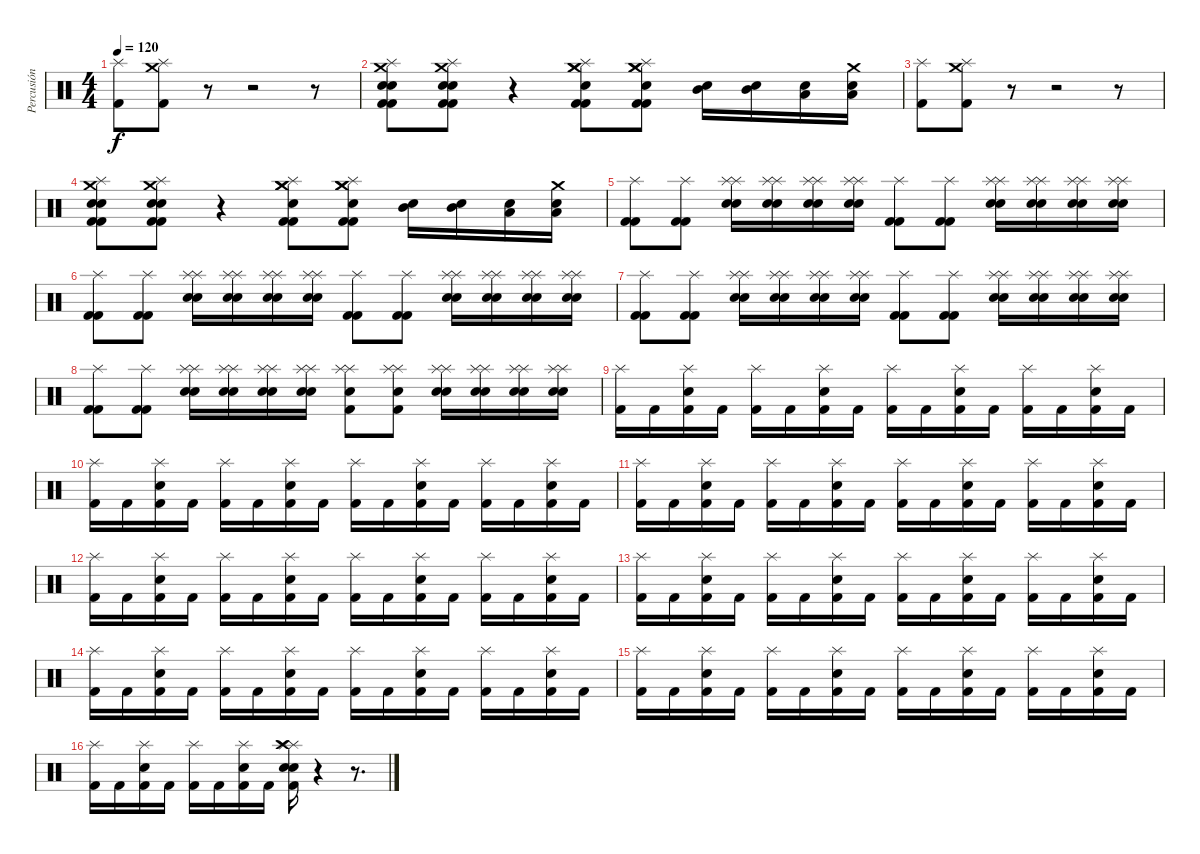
\track ("Percusión" "Percusión") {instrument percussion}
\staff {score}
\articulation defaults
\ts (4 4)
\tempo 120
\clef neutral
\ks c
("Splash (hit)" "Kick (hit) 2").8{dy f} ("Splash (hit)" "Kick (hit) 2" "Crash medium (hit)").8 r.8 r.2 r.8 |
("Splash (hit)" "Kick (hit) 2" "Crash medium (hit)" "Electric Snare (hit)" "Kick (hit) 2" "Electric Snare (hit)").8 ("Splash (hit)" "Kick (hit) 2" "Crash medium (hit)" "Electric Snare (hit)" "Kick (hit) 2" "Electric Snare (hit)").8 r.4 ("Splash (hit)" "Kick (hit) 2" "Crash medium (hit)" "Crash medium (hit)" "Electric Snare (hit)" "Kick (hit) 2").8 ("Splash (hit)" "Kick (hit) 2" "Crash medium (hit)" "Crash medium (hit)" "Electric Snare (hit)" "Kick (hit) 2").8 ("Mid Tom (hit)" "Electric Snare (hit)").16 ("Mid Tom (hit)" "Electric Snare (hit)").16 ("Low Tom (hit)" "Electric Snare (hit)").16 ("Low Tom (hit)" "Electric Snare (hit)" "Crash medium (hit)").16 |
("Splash (hit)" "Kick (hit) 2").8 ("Splash (hit)" "Kick (hit) 2" "Crash medium (hit)").8 r.8 r.2 r.8 |
("Splash (hit)" "Kick (hit) 2" "Crash medium (hit)" "Electric Snare (hit)" "Kick (hit) 2" "Electric Snare (hit)").8 ("Splash (hit)" "Kick (hit) 2" "Crash medium (hit)" "Electric Snare (hit)" "Kick (hit) 2" "Electric Snare (hit)").8 r.4 ("Splash (hit)" "Kick (hit) 2" "Crash medium (hit)" "Crash medium (hit)" "Electric Snare (hit)" "Kick (hit) 2").8 ("Splash (hit)" "Kick (hit) 2" "Crash medium (hit)" "Crash medium (hit)" "Electric Snare (hit)" "Kick (hit) 2").8 ("Mid Tom (hit)" "Electric Snare (hit)").16 ("Mid Tom (hit)" "Electric Snare (hit)").16 ("Low Tom (hit)" "Electric Snare (hit)").16 ("Low Tom (hit)" "Electric Snare (hit)" "Crash medium (hit)").16 |
("Kick (hit) 2" "Kick (hit) 2" "Splash (hit)").8 ("Kick (hit) 2" "Kick (hit) 2" "Splash (hit)").8 ("Electric Snare (hit)" "Electric Snare (hit)" "Splash (hit)" "Splash (hit)").16 ("Electric Snare (hit)" "Electric Snare (hit)" "Splash (hit)" "Splash (hit)").16 ("Electric Snare (hit)" "Electric Snare (hit)" "Splash (hit)" "Splash (hit)").16 ("Electric Snare (hit)" "Electric Snare (hit)" "Splash (hit)" "Splash (hit)").16 ("Kick (hit) 2" "Kick (hit) 2" "Splash (hit)").8 ("Kick (hit) 2" "Kick (hit) 2" "Splash (hit)").8 ("Electric Snare (hit)" "Electric Snare (hit)" "Splash (hit)" "Splash (hit)").16 ("Electric Snare (hit)" "Electric Snare (hit)" "Splash (hit)" "Splash (hit)").16 ("Electric Snare (hit)" "Electric Snare (hit)" "Splash (hit)" "Splash (hit)").16 ("Electric Snare (hit)" "Electric Snare (hit)" "Splash (hit)" "Splash (hit)").16 |
("Kick (hit) 2" "Kick (hit) 2" "Splash (hit)").8 ("Kick (hit) 2" "Kick (hit) 2" "Splash (hit)").8 ("Electric Snare (hit)" "Electric Snare (hit)" "Splash (hit)" "Splash (hit)").16 ("Electric Snare (hit)" "Electric Snare (hit)" "Splash (hit)" "Splash (hit)").16 ("Electric Snare (hit)" "Electric Snare (hit)" "Splash (hit)" "Splash (hit)").16 ("Electric Snare (hit)" "Electric Snare (hit)" "Splash (hit)" "Splash (hit)").16 ("Kick (hit) 2" "Kick (hit) 2" "Splash (hit)").8 ("Kick (hit) 2" "Kick (hit) 2" "Splash (hit)").8 ("Electric Snare (hit)" "Electric Snare (hit)" "Splash (hit)" "Splash (hit)").16 ("Electric Snare (hit)" "Electric Snare (hit)" "Splash (hit)" "Splash (hit)").16 ("Electric Snare (hit)" "Electric Snare (hit)" "Splash (hit)" "Splash (hit)").16 ("Electric Snare (hit)" "Electric Snare (hit)" "Splash (hit)" "Splash (hit)").16 |
("Kick (hit) 2" "Kick (hit) 2" "Splash (hit)").8 ("Kick (hit) 2" "Kick (hit) 2" "Splash (hit)").8 ("Electric Snare (hit)" "Electric Snare (hit)" "Splash (hit)" "Splash (hit)").16 ("Electric Snare (hit)" "Electric Snare (hit)" "Splash (hit)" "Splash (hit)").16 ("Electric Snare (hit)" "Electric Snare (hit)" "Splash (hit)" "Splash (hit)").16 ("Electric Snare (hit)" "Electric Snare (hit)" "Splash (hit)" "Splash (hit)").16 ("Kick (hit) 2" "Kick (hit) 2" "Splash (hit)").8 ("Kick (hit) 2" "Kick (hit) 2" "Splash (hit)").8 ("Electric Snare (hit)" "Electric Snare (hit)" "Splash (hit)" "Splash (hit)").16 ("Electric Snare (hit)" "Electric Snare (hit)" "Splash (hit)" "Splash (hit)").16 ("Electric Snare (hit)" "Electric Snare (hit)" "Splash (hit)" "Splash (hit)").16 ("Electric Snare (hit)" "Electric Snare (hit)" "Splash (hit)" "Splash (hit)").16 |
("Kick (hit) 2" "Kick (hit) 2" "Splash (hit)").8 ("Kick (hit) 2" "Kick (hit) 2" "Splash (hit)").8 ("Electric Snare (hit)" "Electric Snare (hit)" "Splash (hit)" "Splash (hit)").16 ("Electric Snare (hit)" "Electric Snare (hit)" "Splash (hit)" "Splash (hit)").16 ("Electric Snare (hit)" "Electric Snare (hit)" "Splash (hit)" "Splash (hit)").16 ("Electric Snare (hit)" "Electric Snare (hit)" "Splash (hit)" "Splash (hit)").16 ("Electric Snare (hit)" "Kick (hit) 2" "Splash (hit)" "Splash (hit)").8 ("Electric Snare (hit)" "Kick (hit) 2" "Splash (hit)" "Splash (hit)").8 ("Electric Snare (hit)" "Electric Snare (hit)" "Splash (hit)" "Splash (hit)").16 ("Electric Snare (hit)" "Electric Snare (hit)" "Splash (hit)" "Splash (hit)").16 ("Electric Snare (hit)" "Electric Snare (hit)" "Splash (hit)" "Splash (hit)").16 ("Electric Snare (hit)" "Electric Snare (hit)" "Splash (hit)" "Splash (hit)").16 |
("Kick (hit) 2" "Splash (hit)").16 "Kick (hit) 2".16 ("Kick (hit) 2" "Splash (hit)" "Electric Snare (hit)").16 "Kick (hit) 2".16 ("Kick (hit) 2" "Splash (hit)").16 "Kick (hit) 2".16 ("Kick (hit) 2" "Splash (hit)" "Electric Snare (hit)").16 "Kick (hit) 2".16 ("Kick (hit) 2" "Splash (hit)").16 "Kick (hit) 2".16 ("Kick (hit) 2" "Splash (hit)" "Electric Snare (hit)").16 "Kick (hit) 2".16 ("Kick (hit) 2" "Splash (hit)").16 "Kick (hit) 2".16 ("Kick (hit) 2" "Splash (hit)" "Electric Snare (hit)").16 "Kick (hit) 2".16 |
("Kick (hit) 2" "Splash (hit)").16 "Kick (hit) 2".16 ("Kick (hit) 2" "Splash (hit)" "Electric Snare (hit)").16 "Kick (hit) 2".16 ("Kick (hit) 2" "Splash (hit)").16 "Kick (hit) 2".16 ("Kick (hit) 2" "Splash (hit)" "Electric Snare (hit)").16 "Kick (hit) 2".16 ("Kick (hit) 2" "Splash (hit)").16 "Kick (hit) 2".16 ("Kick (hit) 2" "Splash (hit)" "Electric Snare (hit)").16 "Kick (hit) 2".16 ("Kick (hit) 2" "Splash (hit)").16 "Kick (hit) 2".16 ("Kick (hit) 2" "Splash (hit)" "Electric Snare (hit)").16 "Kick (hit) 2".16 |
("Kick (hit) 2" "Splash (hit)").16 "Kick (hit) 2".16 ("Kick (hit) 2" "Splash (hit)" "Electric Snare (hit)").16 "Kick (hit) 2".16 ("Kick (hit) 2" "Splash (hit)").16 "Kick (hit) 2".16 ("Kick (hit) 2" "Splash (hit)" "Electric Snare (hit)").16 "Kick (hit) 2".16 ("Kick (hit) 2" "Splash (hit)").16 "Kick (hit) 2".16 ("Kick (hit) 2" "Splash (hit)" "Electric Snare (hit)").16 "Kick (hit) 2".16 ("Kick (hit) 2" "Splash (hit)").16 "Kick (hit) 2".16 ("Kick (hit) 2" "Splash (hit)" "Electric Snare (hit)").16 "Kick (hit) 2".16 |
("Kick (hit) 2" "Splash (hit)").16 "Kick (hit) 2".16 ("Kick (hit) 2" "Splash (hit)" "Electric Snare (hit)").16 "Kick (hit) 2".16 ("Kick (hit) 2" "Splash (hit)").16 "Kick (hit) 2".16 ("Kick (hit) 2" "Splash (hit)" "Electric Snare (hit)").16 "Kick (hit) 2".16 ("Kick (hit) 2" "Splash (hit)").16 "Kick (hit) 2".16 ("Kick (hit) 2" "Splash (hit)" "Electric Snare (hit)").16 "Kick (hit) 2".16 ("Kick (hit) 2" "Splash (hit)").16 "Kick (hit) 2".16 ("Kick (hit) 2" "Splash (hit)" "Electric Snare (hit)").16 "Kick (hit) 2".16 |
("Kick (hit) 2" "Splash (hit)").16 "Kick (hit) 2".16 ("Kick (hit) 2" "Splash (hit)" "Electric Snare (hit)").16 "Kick (hit) 2".16 ("Kick (hit) 2" "Splash (hit)").16 "Kick (hit) 2".16 ("Kick (hit) 2" "Splash (hit)" "Electric Snare (hit)").16 "Kick (hit) 2".16 ("Kick (hit) 2" "Splash (hit)").16 "Kick (hit) 2".16 ("Kick (hit) 2" "Splash (hit)" "Electric Snare (hit)").16 "Kick (hit) 2".16 ("Kick (hit) 2" "Splash (hit)").16 "Kick (hit) 2".16 ("Kick (hit) 2" "Splash (hit)" "Electric Snare (hit)").16 "Kick (hit) 2".16 |
("Kick (hit) 2" "Splash (hit)").16 "Kick (hit) 2".16 ("Kick (hit) 2" "Splash (hit)" "Electric Snare (hit)").16 "Kick (hit) 2".16 ("Kick (hit) 2" "Splash (hit)").16 "Kick (hit) 2".16 ("Kick (hit) 2" "Splash (hit)" "Electric Snare (hit)").16 "Kick (hit) 2".16 ("Kick (hit) 2" "Splash (hit)").16 "Kick (hit) 2".16 ("Kick (hit) 2" "Splash (hit)" "Electric Snare (hit)").16 "Kick (hit) 2".16 ("Kick (hit) 2" "Splash (hit)").16 "Kick (hit) 2".16 ("Kick (hit) 2" "Splash (hit)" "Electric Snare (hit)").16 "Kick (hit) 2".16 |
("Kick (hit) 2" "Splash (hit)").16 "Kick (hit) 2".16 ("Kick (hit) 2" "Splash (hit)" "Electric Snare (hit)").16 "Kick (hit) 2".16 ("Kick (hit) 2" "Splash (hit)").16 "Kick (hit) 2".16 ("Kick (hit) 2" "Splash (hit)" "Electric Snare (hit)").16 "Kick (hit) 2".16 ("Kick (hit) 2" "Splash (hit)").16 "Kick (hit) 2".16 ("Kick (hit) 2" "Splash (hit)" "Electric Snare (hit)").16 "Kick (hit) 2".16 ("Kick (hit) 2" "Splash (hit)").16 "Kick (hit) 2".16 ("Kick (hit) 2" "Splash (hit)" "Electric Snare (hit)").16 "Kick (hit) 2".16 |
("Kick (hit) 2" "Splash (hit)").16 "Kick (hit) 2".16 ("Kick (hit) 2" "Splash (hit)" "Electric Snare (hit)").16 "Kick (hit) 2".16 ("Kick (hit) 2" "Splash (hit)").16 "Kick (hit) 2".16 ("Kick (hit) 2" "Splash (hit)" "Electric Snare (hit)").16 "Kick (hit) 2".16 ("Kick (hit) 2" "Splash (hit)" "Electric Snare (hit)" "Electric Snare (hit)" "Splash (hit)" "Crash high (hit)").16 r.4 r.8{d}
